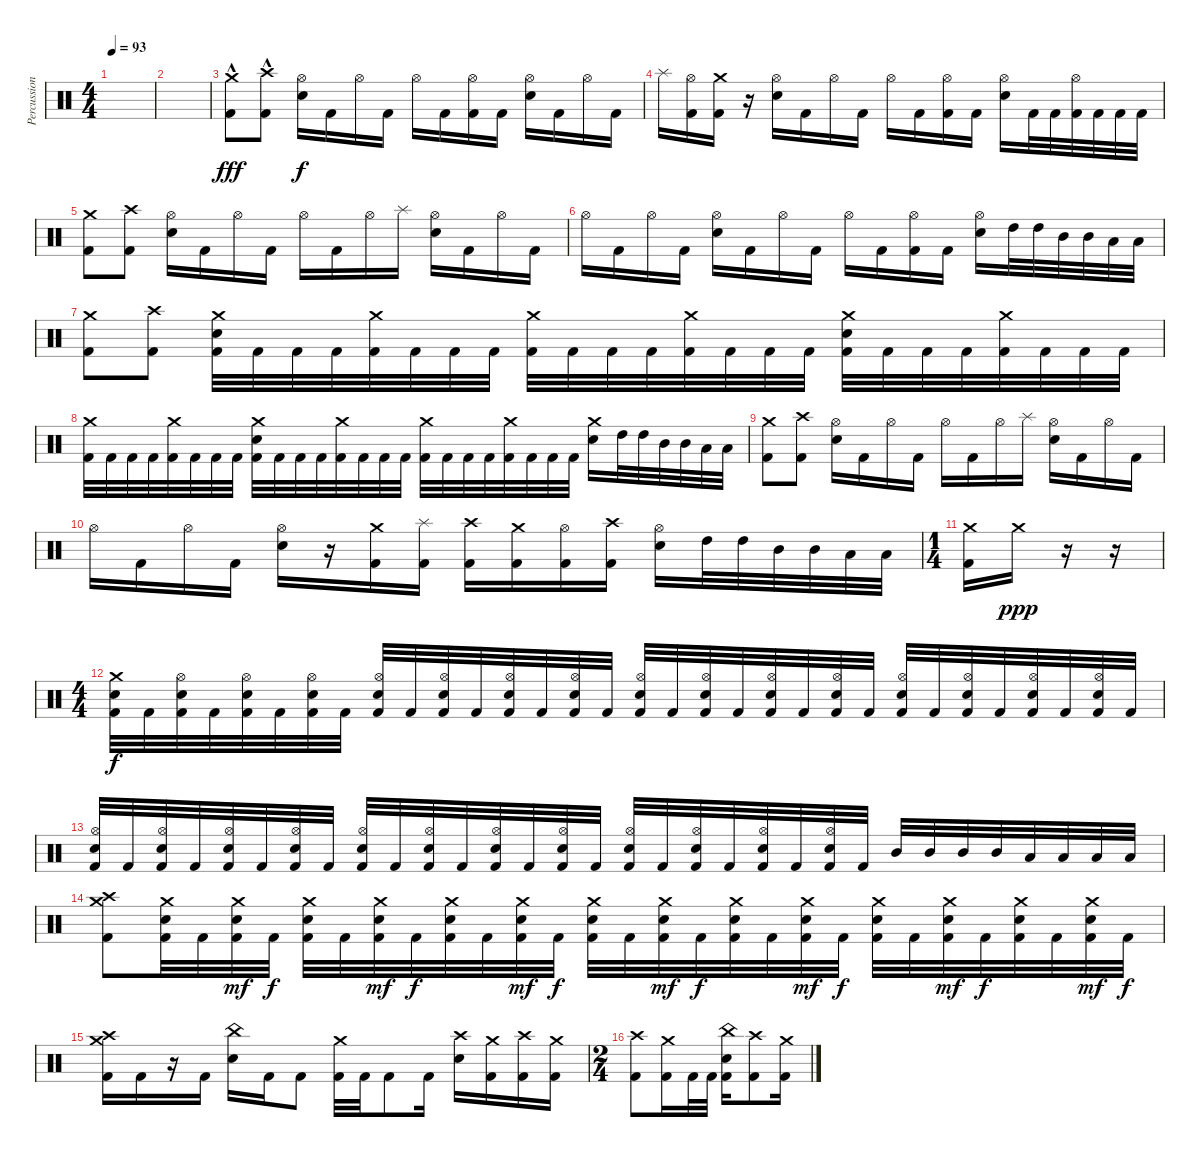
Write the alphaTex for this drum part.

\track ("Percussion" "Percussion") {instrument percussion}
\staff {score}
\articulation defaults
\ts (4 4)
\tempo 93
\clef neutral
\ks c
|
|
("Crash medium (hit)"{hac} "Kick (hit) 2"{hac}).8{dy fff} ("Crash high (hit)"{hac} "Kick (hit) 2"{hac}).8 ("Hi-Hat (open)" "Electric Snare (hit)").16{dy f} "Kick (hit) 2".16 "Hi-Hat (open)".16 "Kick (hit) 2".16 "Hi-Hat (open)".16 "Kick (hit) 2".16 ("Hi-Hat (open)" "Kick (hit) 2").16 "Kick (hit) 2".16 ("Hi-Hat (open)" "Electric Snare (hit)").16 "Kick (hit) 2".16 "Hi-Hat (open)".16 "Kick (hit) 2".16 |
"Splash (hit)".16 ("Hi-Hat (open)" "Kick (hit) 2").16 ("Crash medium (hit)" "Kick (hit) 2").16 r.16 ("Hi-Hat (open)" "Electric Snare (hit)").16 "Kick (hit) 2".16 "Hi-Hat (open)".16 "Kick (hit) 2".16 "Hi-Hat (open)".16 "Kick (hit) 2".16 ("Hi-Hat (open)" "Kick (hit) 2").16 "Kick (hit) 2".16 ("Hi-Hat (open)" "Electric Snare (hit)").16 "Kick (hit) 2".32 "Kick (hit) 2".32 ("Hi-Hat (open)" "Kick (hit) 2").32 "Kick (hit) 2".32 "Kick (hit) 2".32 "Kick (hit) 2".32 |
("Crash medium (hit)" "Kick (hit) 2").8 ("Crash high (hit)" "Kick (hit) 2").8 ("Hi-Hat (open)" "Electric Snare (hit)").16 "Kick (hit) 2".16 "Hi-Hat (open)".16 "Kick (hit) 2".16 "Hi-Hat (open)".16 "Kick (hit) 2".16 "Hi-Hat (open)".16 "Splash (hit)".16 ("Hi-Hat (open)" "Electric Snare (hit)").16 "Kick (hit) 2".16 "Hi-Hat (open)".16 "Kick (hit) 2".16 |
"Hi-Hat (open)".16 "Kick (hit) 2".16 "Hi-Hat (open)".16 "Kick (hit) 2".16 ("Hi-Hat (open)" "Electric Snare (hit)").16 "Kick (hit) 2".16 "Hi-Hat (open)".16 "Kick (hit) 2".16 "Hi-Hat (open)".16 "Kick (hit) 2".16 ("Hi-Hat (open)" "Kick (hit) 2").16 "Kick (hit) 2".16 ("Hi-Hat (open)" "Electric Snare (hit)").16 "High Tom (hit)".32 "High Tom (hit)".32 "Mid Tom (hit)".32 "Mid Tom (hit)".32 "Low Tom (hit)".32 "Low Tom (hit)".32 |
("Crash medium (hit)" "Kick (hit) 2").8 ("Crash high (hit)" "Kick (hit) 2").8 ("Crash medium (hit)" "Electric Snare (hit)" "Kick (hit) 2").32 "Kick (hit) 2".32 "Kick (hit) 2".32 "Kick (hit) 2".32 ("Crash medium (hit)" "Kick (hit) 2").32 "Kick (hit) 2".32 "Kick (hit) 2".32 "Kick (hit) 2".32 ("Crash medium (hit)" "Kick (hit) 2").32 "Kick (hit) 2".32 "Kick (hit) 2".32 "Kick (hit) 2".32 ("Crash medium (hit)" "Kick (hit) 2").32 "Kick (hit) 2".32 "Kick (hit) 2".32 "Kick (hit) 2".32 ("Crash medium (hit)" "Electric Snare (hit)" "Kick (hit) 2").32 "Kick (hit) 2".32 "Kick (hit) 2".32 "Kick (hit) 2".32 ("Crash medium (hit)" "Kick (hit) 2").32 "Kick (hit) 2".32 "Kick (hit) 2".32 "Kick (hit) 2".32 |
("Crash medium (hit)" "Kick (hit) 2").32 "Kick (hit) 2".32 "Kick (hit) 2".32 "Kick (hit) 2".32 ("Crash medium (hit)" "Kick (hit) 2").32 "Kick (hit) 2".32 "Kick (hit) 2".32 "Kick (hit) 2".32 ("Crash medium (hit)" "Electric Snare (hit)" "Kick (hit) 2").32 "Kick (hit) 2".32 "Kick (hit) 2".32 "Kick (hit) 2".32 ("Crash medium (hit)" "Kick (hit) 2").32 "Kick (hit) 2".32 "Kick (hit) 2".32 "Kick (hit) 2".32 ("Crash medium (hit)" "Kick (hit) 2").32 "Kick (hit) 2".32 "Kick (hit) 2".32 "Kick (hit) 2".32 ("Crash medium (hit)" "Kick (hit) 2").32 "Kick (hit) 2".32 "Kick (hit) 2".32 "Kick (hit) 2".32 ("Crash medium (hit)" "Electric Snare (hit)").16 "High Tom (hit)".32 "High Tom (hit)".32 "Mid Tom (hit)".32 "Mid Tom (hit)".32 "Low Tom (hit)".32 "Low Tom (hit)".32 |
("Crash medium (hit)" "Kick (hit) 2").8 ("Crash high (hit)" "Kick (hit) 2").8 ("Hi-Hat (open)" "Electric Snare (hit)").16 "Kick (hit) 2".16 "Hi-Hat (open)".16 "Kick (hit) 2".16 "Hi-Hat (open)".16 "Kick (hit) 2".16 "Hi-Hat (open)".16 "Splash (hit)".16 ("Hi-Hat (open)" "Electric Snare (hit)").16 "Kick (hit) 2".16 "Hi-Hat (open)".16 "Kick (hit) 2".16 |
"Hi-Hat (open)".16 "Kick (hit) 2".16 "Hi-Hat (open)".16 "Kick (hit) 2".16 ("Hi-Hat (open)" "Electric Snare (hit)").16 r.16 ("Crash medium (hit)" "Kick (hit) 2").16 ("Splash (hit)" "Kick (hit) 2").16 ("Crash high (hit)" "Kick (hit) 2").16 ("Crash medium (hit)" "Kick (hit) 2").16 ("Hi-Hat (open)" "Kick (hit) 2").16 ("Crash high (hit)" "Kick (hit) 2").16 ("Hi-Hat (open)" "Electric Snare (hit)").16 "High Tom (hit)".32 "High Tom (hit)".32 "Mid Tom (hit)".32 "Mid Tom (hit)".32 "Low Tom (hit)".32 "Low Tom (hit)".32 |
\ts (1 4)
("Crash medium (hit)" "Kick (hit) 2").16 "Crash medium (hit)".16{dy ppp} r.16 r.16 |
\ts (4 4)
("Crash medium (hit)" "Electric Snare (hit)" "Kick (hit) 2").32{dy f} "Kick (hit) 2".32 ("Hi-Hat (open)" "Electric Snare (hit)" "Kick (hit) 2").32 "Kick (hit) 2".32 ("Hi-Hat (open)" "Electric Snare (hit)" "Kick (hit) 2").32 "Kick (hit) 2".32 ("Hi-Hat (open)" "Electric Snare (hit)" "Kick (hit) 2").32 "Kick (hit) 2".32 ("Hi-Hat (open)" "Electric Snare (hit)" "Kick (hit) 2").32 "Kick (hit) 2".32 ("Hi-Hat (open)" "Electric Snare (hit)" "Kick (hit) 2").32 "Kick (hit) 2".32 ("Hi-Hat (open)" "Electric Snare (hit)" "Kick (hit) 2").32 "Kick (hit) 2".32 ("Hi-Hat (open)" "Electric Snare (hit)" "Kick (hit) 2").32 "Kick (hit) 2".32 ("Hi-Hat (open)" "Electric Snare (hit)" "Kick (hit) 2").32 "Kick (hit) 2".32 ("Hi-Hat (open)" "Electric Snare (hit)" "Kick (hit) 2").32 "Kick (hit) 2".32 ("Hi-Hat (open)" "Electric Snare (hit)" "Kick (hit) 2").32 "Kick (hit) 2".32 ("Hi-Hat (open)" "Electric Snare (hit)" "Kick (hit) 2").32 "Kick (hit) 2".32 ("Hi-Hat (open)" "Electric Snare (hit)" "Kick (hit) 2").32 "Kick (hit) 2".32 ("Hi-Hat (open)" "Electric Snare (hit)" "Kick (hit) 2").32 "Kick (hit) 2".32 ("Hi-Hat (open)" "Electric Snare (hit)" "Kick (hit) 2").32 "Kick (hit) 2".32 ("Hi-Hat (open)" "Electric Snare (hit)" "Kick (hit) 2").32 "Kick (hit) 2".32 |
("Hi-Hat (open)" "Electric Snare (hit)" "Kick (hit) 2").32 "Kick (hit) 2".32 ("Hi-Hat (open)" "Electric Snare (hit)" "Kick (hit) 2").32 "Kick (hit) 2".32 ("Hi-Hat (open)" "Electric Snare (hit)" "Kick (hit) 2").32 "Kick (hit) 2".32 ("Hi-Hat (open)" "Electric Snare (hit)" "Kick (hit) 2").32 "Kick (hit) 2".32 ("Hi-Hat (open)" "Electric Snare (hit)" "Kick (hit) 2").32 "Kick (hit) 2".32 ("Hi-Hat (open)" "Electric Snare (hit)" "Kick (hit) 2").32 "Kick (hit) 2".32 ("Hi-Hat (open)" "Electric Snare (hit)" "Kick (hit) 2").32 "Kick (hit) 2".32 ("Hi-Hat (open)" "Electric Snare (hit)" "Kick (hit) 2").32 "Kick (hit) 2".32 ("Hi-Hat (open)" "Electric Snare (hit)" "Kick (hit) 2").32 "Kick (hit) 2".32 ("Hi-Hat (open)" "Electric Snare (hit)" "Kick (hit) 2").32 "Kick (hit) 2".32 ("Hi-Hat (open)" "Electric Snare (hit)" "Kick (hit) 2").32 "Kick (hit) 2".32 ("Hi-Hat (open)" "Electric Snare (hit)" "Kick (hit) 2").32 "Kick (hit) 2".32 "Mid Tom (hit)".32 "Mid Tom (hit)".32 "Mid Tom (hit)".32 "Mid Tom (hit)".32 "Low Tom (hit)".32 "Low Tom (hit)".32 "Low Tom (hit)".32 "Low Tom (hit)".32 |
("Crash medium (hit)" "Crash high (hit)" "Kick (hit) 2").8 ("Crash medium (hit)" "Electric Snare (hit)" "Kick (hit) 2").32 "Kick (hit) 2".32 ("Crash medium (hit)" "Electric Snare (hit)" "Kick (hit) 2").32{dy mf} "Kick (hit) 2".32{dy f} ("Crash medium (hit)" "Electric Snare (hit)" "Kick (hit) 2").32 "Kick (hit) 2".32 ("Crash medium (hit)" "Electric Snare (hit)" "Kick (hit) 2").32{dy mf} "Kick (hit) 2".32{dy f} ("Crash medium (hit)" "Electric Snare (hit)" "Kick (hit) 2").32 "Kick (hit) 2".32 ("Crash medium (hit)" "Electric Snare (hit)" "Kick (hit) 2").32{dy mf} "Kick (hit) 2".32{dy f} ("Crash medium (hit)" "Electric Snare (hit)" "Kick (hit) 2").32 "Kick (hit) 2".32 ("Crash medium (hit)" "Electric Snare (hit)" "Kick (hit) 2").32{dy mf} "Kick (hit) 2".32{dy f} ("Crash medium (hit)" "Electric Snare (hit)" "Kick (hit) 2").32 "Kick (hit) 2".32 ("Crash medium (hit)" "Electric Snare (hit)" "Kick (hit) 2").32{dy mf} "Kick (hit) 2".32{dy f} ("Crash medium (hit)" "Electric Snare (hit)" "Kick (hit) 2").32 "Kick (hit) 2".32 ("Crash medium (hit)" "Electric Snare (hit)" "Kick (hit) 2").32{dy mf} "Kick (hit) 2".32{dy f} ("Crash medium (hit)" "Electric Snare (hit)" "Kick (hit) 2").32 "Kick (hit) 2".32 ("Crash medium (hit)" "Electric Snare (hit)" "Kick (hit) 2").32{dy mf} "Kick (hit) 2".32{dy f} |
("Crash medium (hit)" "Crash high (hit)" "Kick (hit) 2").16 "Kick (hit) 2".16 r.16 "Kick (hit) 2".16 ("China (hit)" "Electric Snare (hit)").16 "Kick (hit) 2".16 "Kick (hit) 2".8 ("Crash medium (hit)" "Kick (hit) 2").32 "Kick (hit) 2".32 "Kick (hit) 2".8 "Kick (hit) 2".16 ("Crash high (hit)" "Electric Snare (hit)").16 ("Crash medium (hit)" "Kick (hit) 2").16 ("Crash high (hit)" "Kick (hit) 2").16 ("Crash medium (hit)" "Kick (hit) 2").16 |
\ts (2 4)
("Crash high (hit)" "Kick (hit) 2").8 ("Crash medium (hit)" "Kick (hit) 2").16 "Kick (hit) 2".32 "Kick (hit) 2".32 ("China (hit)" "Electric Snare (hit)" "Kick (hit) 2").16 ("Crash high (hit)" "Kick (hit) 2").8 ("Crash medium (hit)" "Kick (hit) 2").16
